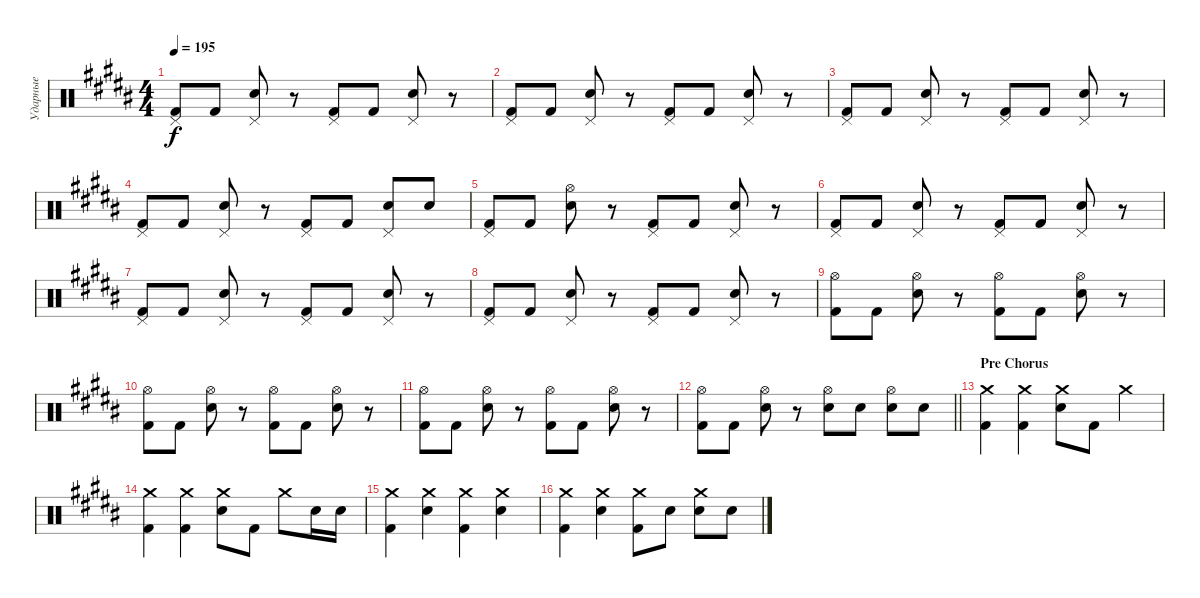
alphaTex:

\track ("Ударные" "Ударные") {instrument percussion}
\staff {score}
\articulation defaults
\ts (4 4)
\tempo 195
\clef neutral
\ks b
("Pedal Hi-Hat (hit)" "Kick (hit) 2").8{dy f} "Kick (hit) 2".8 ("Pedal Hi-Hat (hit)" "Electric Snare (hit)").8 r.8 ("Pedal Hi-Hat (hit)" "Kick (hit) 2").8 "Kick (hit) 2".8 ("Pedal Hi-Hat (hit)" "Electric Snare (hit)").8 r.8 |
("Pedal Hi-Hat (hit)" "Kick (hit) 2").8 "Kick (hit) 2".8 ("Pedal Hi-Hat (hit)" "Electric Snare (hit)").8 r.8 ("Pedal Hi-Hat (hit)" "Kick (hit) 2").8 "Kick (hit) 2".8 ("Pedal Hi-Hat (hit)" "Electric Snare (hit)").8 r.8 |
("Pedal Hi-Hat (hit)" "Kick (hit) 2").8 "Kick (hit) 2".8 ("Pedal Hi-Hat (hit)" "Electric Snare (hit)").8 r.8 ("Pedal Hi-Hat (hit)" "Kick (hit) 2").8 "Kick (hit) 2".8 ("Pedal Hi-Hat (hit)" "Electric Snare (hit)").8 r.8 |
("Pedal Hi-Hat (hit)" "Kick (hit) 2").8 "Kick (hit) 2".8 ("Pedal Hi-Hat (hit)" "Electric Snare (hit)").8 r.8 ("Pedal Hi-Hat (hit)" "Kick (hit) 2").8 "Kick (hit) 2".8 ("Pedal Hi-Hat (hit)" "Electric Snare (hit)").8 "Electric Snare (hit)".8 |
("Pedal Hi-Hat (hit)" "Kick (hit) 2").8 "Kick (hit) 2".8 ("Hi-Hat (open)" "Electric Snare (hit)").8 r.8 ("Pedal Hi-Hat (hit)" "Kick (hit) 2").8 "Kick (hit) 2".8 ("Pedal Hi-Hat (hit)" "Electric Snare (hit)").8 r.8 |
("Pedal Hi-Hat (hit)" "Kick (hit) 2").8 "Kick (hit) 2".8 ("Pedal Hi-Hat (hit)" "Electric Snare (hit)").8 r.8 ("Pedal Hi-Hat (hit)" "Kick (hit) 2").8 "Kick (hit) 2".8 ("Pedal Hi-Hat (hit)" "Electric Snare (hit)").8 r.8 |
("Pedal Hi-Hat (hit)" "Kick (hit) 2").8 "Kick (hit) 2".8 ("Pedal Hi-Hat (hit)" "Electric Snare (hit)").8 r.8 ("Pedal Hi-Hat (hit)" "Kick (hit) 2").8 "Kick (hit) 2".8 ("Pedal Hi-Hat (hit)" "Electric Snare (hit)").8 r.8 |
("Pedal Hi-Hat (hit)" "Kick (hit) 2").8 "Kick (hit) 2".8 ("Pedal Hi-Hat (hit)" "Electric Snare (hit)").8 r.8 ("Pedal Hi-Hat (hit)" "Kick (hit) 2").8 "Kick (hit) 2".8 ("Pedal Hi-Hat (hit)" "Electric Snare (hit)").8 r.8 |
("Hi-Hat (open)" "Kick (hit) 2").8 "Kick (hit) 2".8 ("Hi-Hat (open)" "Electric Snare (hit)").8 r.8 ("Hi-Hat (open)" "Kick (hit) 2").8 "Kick (hit) 2".8 ("Hi-Hat (open)" "Electric Snare (hit)").8 r.8 |
("Hi-Hat (open)" "Kick (hit) 2").8 "Kick (hit) 2".8 ("Hi-Hat (open)" "Electric Snare (hit)").8 r.8 ("Hi-Hat (open)" "Kick (hit) 2").8 "Kick (hit) 2".8 ("Hi-Hat (open)" "Electric Snare (hit)").8 r.8 |
("Hi-Hat (open)" "Kick (hit) 2").8 "Kick (hit) 2".8 ("Hi-Hat (open)" "Electric Snare (hit)").8 r.8 ("Hi-Hat (open)" "Kick (hit) 2").8 "Kick (hit) 2".8 ("Hi-Hat (open)" "Electric Snare (hit)").8 r.8 |
\barLineRight lightlight
("Hi-Hat (open)" "Kick (hit) 2").8 "Kick (hit) 2".8 ("Hi-Hat (open)" "Electric Snare (hit)").8 r.8 ("Hi-Hat (open)" "Electric Snare (hit)").8 "Electric Snare (hit)".8 ("Hi-Hat (open)" "Electric Snare (hit)").8 "Electric Snare (hit)".8 |
\section ("" "Pre Chorus")
("Crash medium (hit)" "Kick (hit) 2").4 ("Crash medium (hit)" "Kick (hit) 2").4 ("Crash medium (hit)" "Electric Snare (hit)").8 "Kick (hit) 2".8 "Crash medium (hit)".4 |
("Crash medium (hit)" "Kick (hit) 2").4 ("Crash medium (hit)" "Kick (hit) 2").4 ("Crash medium (hit)" "Electric Snare (hit)").8 "Kick (hit) 2".8 "Crash medium (hit)".8 "Electric Snare (hit)".16 "Electric Snare (hit)".16 |
("Crash medium (hit)" "Kick (hit) 2").4 ("Crash medium (hit)" "Electric Snare (hit)").4 ("Crash medium (hit)" "Kick (hit) 2").4 ("Crash medium (hit)" "Electric Snare (hit)").4 |
("Crash medium (hit)" "Kick (hit) 2").4 ("Crash medium (hit)" "Electric Snare (hit)").4 ("Crash medium (hit)" "Kick (hit) 2").8 "Electric Snare (hit)".8 ("Crash medium (hit)" "Electric Snare (hit)").8 "Electric Snare (hit)".8
